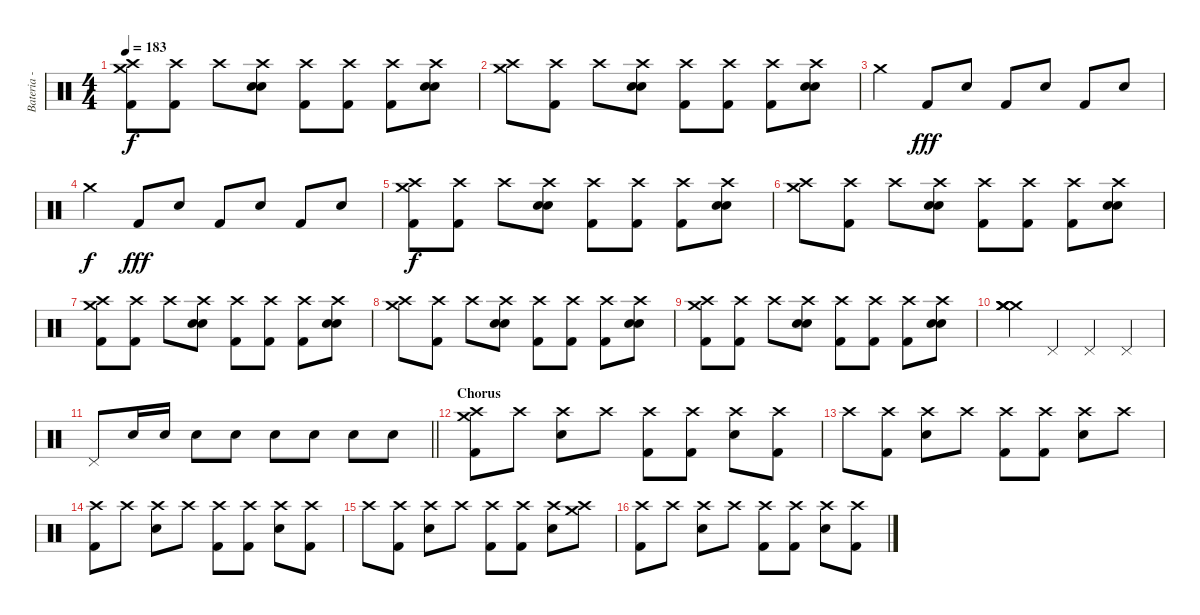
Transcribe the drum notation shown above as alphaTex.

\track ("Bateria - Larzon " "Bateria - ") {instrument percussion}
\staff {score}
\articulation defaults
\ts (4 4)
\tempo 183
\clef neutral
\ks c
("Kick (hit) 2" "Crash medium (hit)" "Crash high (hit)").8{dy f} ("Kick (hit) 2" "Crash high (hit)").8 "Crash high (hit)".8 ("Snare (hit) 2" "Snare (hit) 2" "Crash high (hit)").8 ("Kick (hit) 2" "Crash high (hit)").8 ("Kick (hit) 2" "Crash high (hit)").8 ("Kick (hit) 2" "Crash high (hit)").8 ("Snare (hit) 2" "Snare (hit) 2" "Crash high (hit)").8 |
("Crash medium (hit)" "Crash high (hit)").8 ("Kick (hit) 2" "Crash high (hit)").8 "Crash high (hit)".8 ("Snare (hit) 2" "Snare (hit) 2" "Crash high (hit)").8 ("Kick (hit) 2" "Crash high (hit)").8 ("Kick (hit) 2" "Crash high (hit)").8 ("Kick (hit) 2" "Crash high (hit)").8 ("Snare (hit) 2" "Snare (hit) 2" "Crash high (hit)").8 |
"Crash medium (hit)".4 "Kick (hit) 2".8{dy fff} "Snare (hit) 2".8 "Kick (hit) 2".8 "Snare (hit) 2".8 "Kick (hit) 2".8 "Snare (hit) 2".8 |
"Crash medium (hit)".4{dy f} "Kick (hit) 2".8{dy fff} "Snare (hit) 2".8 "Kick (hit) 2".8 "Snare (hit) 2".8 "Kick (hit) 2".8 "Snare (hit) 2".8 |
("Kick (hit) 2" "Crash medium (hit)" "Crash high (hit)").8{dy f} ("Kick (hit) 2" "Crash high (hit)").8 "Crash high (hit)".8 ("Snare (hit) 2" "Snare (hit) 2" "Crash high (hit)").8 ("Kick (hit) 2" "Crash high (hit)").8 ("Kick (hit) 2" "Crash high (hit)").8 ("Kick (hit) 2" "Crash high (hit)").8 ("Snare (hit) 2" "Snare (hit) 2" "Crash high (hit)").8 |
("Crash medium (hit)" "Crash high (hit)").8 ("Kick (hit) 2" "Crash high (hit)").8 "Crash high (hit)".8 ("Snare (hit) 2" "Snare (hit) 2" "Crash high (hit)").8 ("Kick (hit) 2" "Crash high (hit)").8 ("Kick (hit) 2" "Crash high (hit)").8 ("Kick (hit) 2" "Crash high (hit)").8 ("Snare (hit) 2" "Snare (hit) 2" "Crash high (hit)").8 |
("Kick (hit) 2" "Crash medium (hit)" "Crash high (hit)").8 ("Kick (hit) 2" "Crash high (hit)").8 "Crash high (hit)".8 ("Snare (hit) 2" "Snare (hit) 2" "Crash high (hit)").8 ("Kick (hit) 2" "Crash high (hit)").8 ("Kick (hit) 2" "Crash high (hit)").8 ("Kick (hit) 2" "Crash high (hit)").8 ("Snare (hit) 2" "Snare (hit) 2" "Crash high (hit)").8 |
("Crash medium (hit)" "Crash high (hit)").8 ("Kick (hit) 2" "Crash high (hit)").8 "Crash high (hit)".8 ("Snare (hit) 2" "Snare (hit) 2" "Crash high (hit)").8 ("Kick (hit) 2" "Crash high (hit)").8 ("Kick (hit) 2" "Crash high (hit)").8 ("Kick (hit) 2" "Crash high (hit)").8 ("Snare (hit) 2" "Snare (hit) 2" "Crash high (hit)").8 |
("Kick (hit) 2" "Crash medium (hit)" "Crash high (hit)").8 ("Kick (hit) 2" "Crash high (hit)").8 "Crash high (hit)".8 ("Snare (hit) 2" "Snare (hit) 2" "Crash high (hit)").8 ("Kick (hit) 2" "Crash high (hit)").8 ("Kick (hit) 2" "Crash high (hit)").8 ("Kick (hit) 2" "Crash high (hit)").8 ("Snare (hit) 2" "Snare (hit) 2" "Crash high (hit)").8 |
("Crash medium (hit)" "Crash medium (hit)" "Crash medium (hit)" "Crash medium (hit)").4 "Pedal Hi-Hat (hit)".4 "Pedal Hi-Hat (hit)".4 "Pedal Hi-Hat (hit)".4 |
\barLineRight lightlight "Pedal Hi-Hat (hit)".8 "Snare (hit) 2".16 "Snare (hit) 2".16 "Snare (hit) 2".8 "Snare (hit) 2".8 "Snare (hit) 2".8 "Snare (hit) 2".8 "Snare (hit) 2".8 "Snare (hit) 2".8
|
\section ("" "Chorus")
("Kick (hit) 2" "Crash medium (hit)" "Crash high (hit)").8 "Crash high (hit)".8 ("Snare (hit) 2" "Crash high (hit)").8 "Crash high (hit)".8 ("Kick (hit) 2" "Crash high (hit)").8 ("Kick (hit) 2" "Crash high (hit)").8 ("Snare (hit) 2" "Crash high (hit)").8 ("Kick (hit) 2" "Crash high (hit)").8 |
"Crash high (hit)".8 ("Kick (hit) 2" "Crash high (hit)").8 ("Snare (hit) 2" "Crash high (hit)").8 "Crash high (hit)".8 ("Kick (hit) 2" "Crash high (hit)").8 ("Kick (hit) 2" "Crash high (hit)").8 ("Snare (hit) 2" "Crash high (hit)").8 "Crash high (hit)".8 |
("Kick (hit) 2" "Crash high (hit)").8 "Crash high (hit)".8 ("Snare (hit) 2" "Crash high (hit)").8 "Crash high (hit)".8 ("Kick (hit) 2" "Crash high (hit)").8 ("Kick (hit) 2" "Crash high (hit)").8 ("Snare (hit) 2" "Crash high (hit)").8 ("Kick (hit) 2" "Crash high (hit)").8 |
"Crash high (hit)".8 ("Kick (hit) 2" "Crash high (hit)").8 ("Snare (hit) 2" "Crash high (hit)").8 "Crash high (hit)".8 ("Kick (hit) 2" "Crash high (hit)").8 ("Kick (hit) 2" "Crash high (hit)").8 ("Snare (hit) 2" "Crash high (hit)").8 ("Crash medium (hit)" "Crash high (hit)").8 |
("Kick (hit) 2" "Crash high (hit)").8 "Crash high (hit)".8 ("Snare (hit) 2" "Crash high (hit)").8 "Crash high (hit)".8 ("Kick (hit) 2" "Crash high (hit)").8 ("Kick (hit) 2" "Crash high (hit)").8 ("Snare (hit) 2" "Crash high (hit)").8 ("Kick (hit) 2" "Crash high (hit)").8
